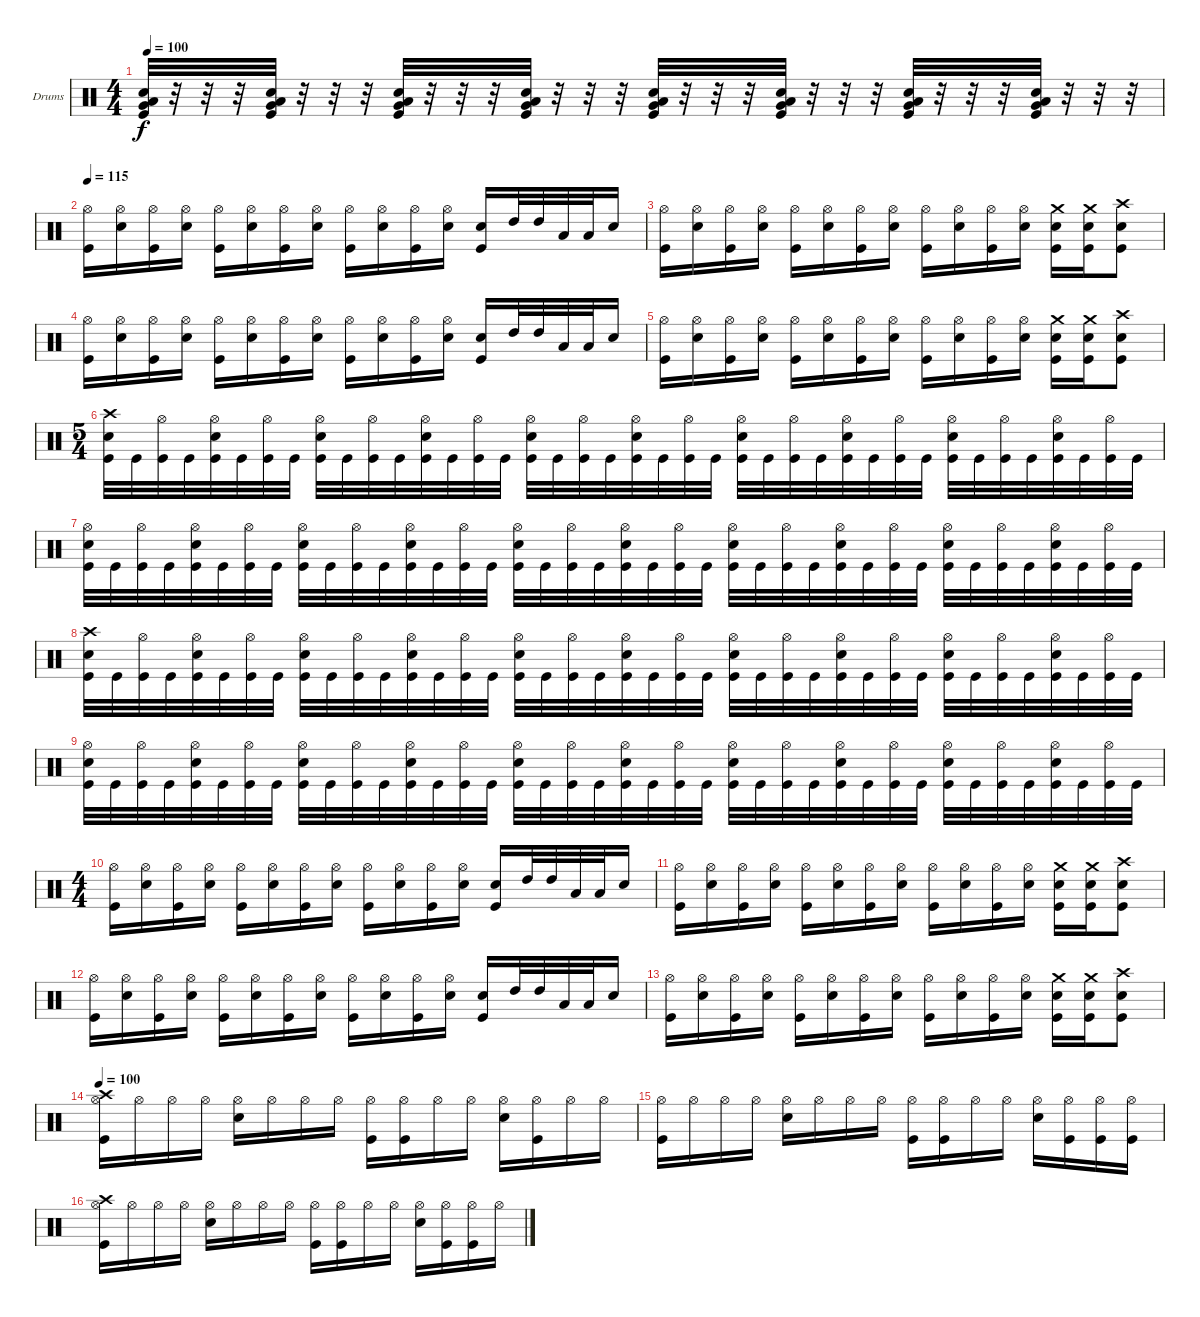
\bracketExtendMode groupsimilarinstruments
\firstSystemTrackNameOrientation horizontal
\otherSystemsTrackNameOrientation horizontal
\track ("Drumkit" "Drums") {instrument percussion}
\staff {score}
\articulation defaults
\ts (4 4)
\tempo 100
\clef neutral
\ks c
("Low Tom (hit)" "Very Low Tom (hit)" "Snare (hit) 2" "Kick (hit)").32{dy f} r.32 r.32 r.32 ("Low Tom (hit)" "Very Low Tom (hit)" "Snare (hit) 2" "Kick (hit)").32 r.32 r.32 r.32 ("Low Tom (hit)" "Very Low Tom (hit)" "Snare (hit) 2" "Kick (hit)").32 r.32 r.32 r.32 ("Low Tom (hit)" "Very Low Tom (hit)" "Snare (hit) 2" "Kick (hit)").32 r.32 r.32 r.32 ("Low Tom (hit)" "Very Low Tom (hit)" "Snare (hit) 2" "Kick (hit)").32 r.32 r.32 r.32 ("Low Tom (hit)" "Very Low Tom (hit)" "Snare (hit) 2" "Kick (hit)").32 r.32 r.32 r.32 ("Low Tom (hit)" "Very Low Tom (hit)" "Snare (hit) 2" "Kick (hit)").32 r.32 r.32 r.32 ("Low Tom (hit)" "Very Low Tom (hit)" "Snare (hit) 2" "Kick (hit)").32 r.32 r.32 r.32 |
\tempo 115
("Hi-Hat (open)" "Kick (hit)").16 ("Hi-Hat (open)" "Snare (hit) 2").16 ("Hi-Hat (open)" "Kick (hit)").16 ("Hi-Hat (open)" "Snare (hit) 2").16 ("Hi-Hat (open)" "Kick (hit)").16 ("Hi-Hat (open)" "Snare (hit) 2").16 ("Hi-Hat (open)" "Kick (hit)").16 ("Hi-Hat (open)" "Snare (hit) 2").16 ("Hi-Hat (open)" "Kick (hit)").16 ("Hi-Hat (open)" "Snare (hit) 2").16 ("Hi-Hat (open)" "Kick (hit)").16 ("Hi-Hat (open)" "Snare (hit) 2").16 ("Snare (hit) 2" "Kick (hit)").16 "High Tom (hit)".32 "High Tom (hit)".32 "Low Tom (hit)".32 "Low Tom (hit)".32 "Snare (hit) 2".16 |
("Hi-Hat (open)" "Kick (hit)").16 ("Hi-Hat (open)" "Snare (hit) 2").16 ("Hi-Hat (open)" "Kick (hit)").16 ("Hi-Hat (open)" "Snare (hit) 2").16 ("Hi-Hat (open)" "Kick (hit)").16 ("Hi-Hat (open)" "Snare (hit) 2").16 ("Hi-Hat (open)" "Kick (hit)").16 ("Hi-Hat (open)" "Snare (hit) 2").16 ("Hi-Hat (open)" "Kick (hit)").16 ("Hi-Hat (open)" "Snare (hit) 2").16 ("Hi-Hat (open)" "Kick (hit)").16 ("Hi-Hat (open)" "Snare (hit) 2").16 ("Crash medium (hit)" "Snare (hit) 2" "Kick (hit)").16 ("Crash medium (hit)" "Snare (hit) 2" "Kick (hit)").16 ("Crash high (hit)" "Snare (hit) 2" "Kick (hit)").8 |
("Hi-Hat (open)" "Kick (hit)").16 ("Hi-Hat (open)" "Snare (hit) 2").16 ("Hi-Hat (open)" "Kick (hit)").16 ("Hi-Hat (open)" "Snare (hit) 2").16 ("Hi-Hat (open)" "Kick (hit)").16 ("Hi-Hat (open)" "Snare (hit) 2").16 ("Hi-Hat (open)" "Kick (hit)").16 ("Hi-Hat (open)" "Snare (hit) 2").16 ("Hi-Hat (open)" "Kick (hit)").16 ("Hi-Hat (open)" "Snare (hit) 2").16 ("Hi-Hat (open)" "Kick (hit)").16 ("Hi-Hat (open)" "Snare (hit) 2").16 ("Snare (hit) 2" "Kick (hit)").16 "High Tom (hit)".32 "High Tom (hit)".32 "Low Tom (hit)".32 "Low Tom (hit)".32 "Snare (hit) 2".16 |
("Hi-Hat (open)" "Kick (hit)").16 ("Hi-Hat (open)" "Snare (hit) 2").16 ("Hi-Hat (open)" "Kick (hit)").16 ("Hi-Hat (open)" "Snare (hit) 2").16 ("Hi-Hat (open)" "Kick (hit)").16 ("Hi-Hat (open)" "Snare (hit) 2").16 ("Hi-Hat (open)" "Kick (hit)").16 ("Hi-Hat (open)" "Snare (hit) 2").16 ("Hi-Hat (open)" "Kick (hit)").16 ("Hi-Hat (open)" "Snare (hit) 2").16 ("Hi-Hat (open)" "Kick (hit)").16 ("Hi-Hat (open)" "Snare (hit) 2").16 ("Crash medium (hit)" "Snare (hit) 2" "Kick (hit)").16 ("Crash medium (hit)" "Snare (hit) 2" "Kick (hit)").16 ("Crash high (hit)" "Snare (hit) 2" "Kick (hit)").8 |
\ts (5 4)
("Snare (hit) 2" "Kick (hit)" "Crash high (hit)").32 "Kick (hit)".32 ("Hi-Hat (open)" "Kick (hit)").32 "Kick (hit)".32 ("Hi-Hat (open)" "Snare (hit) 2" "Kick (hit)").32 "Kick (hit)".32 ("Hi-Hat (open)" "Kick (hit)").32 "Kick (hit)".32 ("Hi-Hat (open)" "Snare (hit) 2" "Kick (hit)").32 "Kick (hit)".32 ("Hi-Hat (open)" "Kick (hit)").32 "Kick (hit)".32 ("Hi-Hat (open)" "Snare (hit) 2" "Kick (hit)").32 "Kick (hit)".32 ("Hi-Hat (open)" "Kick (hit)").32 "Kick (hit)".32 ("Hi-Hat (open)" "Snare (hit) 2" "Kick (hit)").32 "Kick (hit)".32 ("Hi-Hat (open)" "Kick (hit)").32 "Kick (hit)".32 ("Hi-Hat (open)" "Snare (hit) 2" "Kick (hit)").32 "Kick (hit)".32 ("Hi-Hat (open)" "Kick (hit)").32 "Kick (hit)".32 ("Hi-Hat (open)" "Snare (hit) 2" "Kick (hit)").32 "Kick (hit)".32 ("Hi-Hat (open)" "Kick (hit)").32 "Kick (hit)".32 ("Hi-Hat (open)" "Snare (hit) 2" "Kick (hit)").32 "Kick (hit)".32 ("Kick (hit)" "Hi-Hat (open)").32 "Kick (hit)".32 ("Hi-Hat (open)" "Snare (hit) 2" "Kick (hit)").32 "Kick (hit)".32 ("Hi-Hat (open)" "Kick (hit)").32 "Kick (hit)".32 ("Hi-Hat (open)" "Snare (hit) 2" "Kick (hit)").32 "Kick (hit)".32 ("Hi-Hat (open)" "Kick (hit)").32 "Kick (hit)".32 |
("Snare (hit) 2" "Kick (hit)" "Hi-Hat (open)").32 "Kick (hit)".32 ("Hi-Hat (open)" "Kick (hit)").32 "Kick (hit)".32 ("Hi-Hat (open)" "Snare (hit) 2" "Kick (hit)").32 "Kick (hit)".32 ("Hi-Hat (open)" "Kick (hit)").32 "Kick (hit)".32 ("Hi-Hat (open)" "Snare (hit) 2" "Kick (hit)").32 "Kick (hit)".32 ("Hi-Hat (open)" "Kick (hit)").32 "Kick (hit)".32 ("Hi-Hat (open)" "Snare (hit) 2" "Kick (hit)").32 "Kick (hit)".32 ("Hi-Hat (open)" "Kick (hit)").32 "Kick (hit)".32 ("Hi-Hat (open)" "Snare (hit) 2" "Kick (hit)").32 "Kick (hit)".32 ("Hi-Hat (open)" "Kick (hit)").32 "Kick (hit)".32 ("Hi-Hat (open)" "Snare (hit) 2" "Kick (hit)").32 "Kick (hit)".32 ("Hi-Hat (open)" "Kick (hit)").32 "Kick (hit)".32 ("Hi-Hat (open)" "Snare (hit) 2" "Kick (hit)").32 "Kick (hit)".32 ("Hi-Hat (open)" "Kick (hit)").32 "Kick (hit)".32 ("Hi-Hat (open)" "Snare (hit) 2" "Kick (hit)").32 "Kick (hit)".32 ("Kick (hit)" "Hi-Hat (open)").32 "Kick (hit)".32 ("Hi-Hat (open)" "Snare (hit) 2" "Kick (hit)").32 "Kick (hit)".32 ("Hi-Hat (open)" "Kick (hit)").32 "Kick (hit)".32 ("Hi-Hat (open)" "Snare (hit) 2" "Kick (hit)").32 "Kick (hit)".32 ("Hi-Hat (open)" "Kick (hit)").32 "Kick (hit)".32 |
("Snare (hit) 2" "Kick (hit)" "Crash high (hit)").32 "Kick (hit)".32 ("Hi-Hat (open)" "Kick (hit)").32 "Kick (hit)".32 ("Hi-Hat (open)" "Snare (hit) 2" "Kick (hit)").32 "Kick (hit)".32 ("Hi-Hat (open)" "Kick (hit)").32 "Kick (hit)".32 ("Hi-Hat (open)" "Snare (hit) 2" "Kick (hit)").32 "Kick (hit)".32 ("Hi-Hat (open)" "Kick (hit)").32 "Kick (hit)".32 ("Hi-Hat (open)" "Snare (hit) 2" "Kick (hit)").32 "Kick (hit)".32 ("Hi-Hat (open)" "Kick (hit)").32 "Kick (hit)".32 ("Hi-Hat (open)" "Snare (hit) 2" "Kick (hit)").32 "Kick (hit)".32 ("Hi-Hat (open)" "Kick (hit)").32 "Kick (hit)".32 ("Hi-Hat (open)" "Snare (hit) 2" "Kick (hit)").32 "Kick (hit)".32 ("Hi-Hat (open)" "Kick (hit)").32 "Kick (hit)".32 ("Hi-Hat (open)" "Snare (hit) 2" "Kick (hit)").32 "Kick (hit)".32 ("Hi-Hat (open)" "Kick (hit)").32 "Kick (hit)".32 ("Hi-Hat (open)" "Snare (hit) 2" "Kick (hit)").32 "Kick (hit)".32 ("Kick (hit)" "Hi-Hat (open)").32 "Kick (hit)".32 ("Hi-Hat (open)" "Snare (hit) 2" "Kick (hit)").32 "Kick (hit)".32 ("Hi-Hat (open)" "Kick (hit)").32 "Kick (hit)".32 ("Hi-Hat (open)" "Snare (hit) 2" "Kick (hit)").32 "Kick (hit)".32 ("Hi-Hat (open)" "Kick (hit)").32 "Kick (hit)".32 |
("Snare (hit) 2" "Kick (hit)" "Hi-Hat (open)").32 "Kick (hit)".32 ("Hi-Hat (open)" "Kick (hit)").32 "Kick (hit)".32 ("Hi-Hat (open)" "Snare (hit) 2" "Kick (hit)").32 "Kick (hit)".32 ("Hi-Hat (open)" "Kick (hit)").32 "Kick (hit)".32 ("Hi-Hat (open)" "Snare (hit) 2" "Kick (hit)").32 "Kick (hit)".32 ("Hi-Hat (open)" "Kick (hit)").32 "Kick (hit)".32 ("Hi-Hat (open)" "Snare (hit) 2" "Kick (hit)").32 "Kick (hit)".32 ("Hi-Hat (open)" "Kick (hit)").32 "Kick (hit)".32 ("Hi-Hat (open)" "Snare (hit) 2" "Kick (hit)").32 "Kick (hit)".32 ("Hi-Hat (open)" "Kick (hit)").32 "Kick (hit)".32 ("Hi-Hat (open)" "Snare (hit) 2" "Kick (hit)").32 "Kick (hit)".32 ("Hi-Hat (open)" "Kick (hit)").32 "Kick (hit)".32 ("Hi-Hat (open)" "Snare (hit) 2" "Kick (hit)").32 "Kick (hit)".32 ("Hi-Hat (open)" "Kick (hit)").32 "Kick (hit)".32 ("Hi-Hat (open)" "Snare (hit) 2" "Kick (hit)").32 "Kick (hit)".32 ("Kick (hit)" "Hi-Hat (open)").32 "Kick (hit)".32 ("Hi-Hat (open)" "Snare (hit) 2" "Kick (hit)").32 "Kick (hit)".32 ("Hi-Hat (open)" "Kick (hit)").32 "Kick (hit)".32 ("Hi-Hat (open)" "Snare (hit) 2" "Kick (hit)").32 "Kick (hit)".32 ("Hi-Hat (open)" "Kick (hit)").32 "Kick (hit)".32 |
\ts (4 4)
("Hi-Hat (open)" "Kick (hit)").16 ("Hi-Hat (open)" "Snare (hit) 2").16 ("Hi-Hat (open)" "Kick (hit)").16 ("Hi-Hat (open)" "Snare (hit) 2").16 ("Hi-Hat (open)" "Kick (hit)").16 ("Hi-Hat (open)" "Snare (hit) 2").16 ("Hi-Hat (open)" "Kick (hit)").16 ("Hi-Hat (open)" "Snare (hit) 2").16 ("Hi-Hat (open)" "Kick (hit)").16 ("Hi-Hat (open)" "Snare (hit) 2").16 ("Hi-Hat (open)" "Kick (hit)").16 ("Hi-Hat (open)" "Snare (hit) 2").16 ("Snare (hit) 2" "Kick (hit)").16 "High Tom (hit)".32 "High Tom (hit)".32 "Low Tom (hit)".32 "Low Tom (hit)".32 "Snare (hit) 2".16 |
("Hi-Hat (open)" "Kick (hit)").16 ("Hi-Hat (open)" "Snare (hit) 2").16 ("Hi-Hat (open)" "Kick (hit)").16 ("Hi-Hat (open)" "Snare (hit) 2").16 ("Hi-Hat (open)" "Kick (hit)").16 ("Hi-Hat (open)" "Snare (hit) 2").16 ("Hi-Hat (open)" "Kick (hit)").16 ("Hi-Hat (open)" "Snare (hit) 2").16 ("Hi-Hat (open)" "Kick (hit)").16 ("Hi-Hat (open)" "Snare (hit) 2").16 ("Hi-Hat (open)" "Kick (hit)").16 ("Hi-Hat (open)" "Snare (hit) 2").16 ("Crash medium (hit)" "Snare (hit) 2" "Kick (hit)").16 ("Crash medium (hit)" "Snare (hit) 2" "Kick (hit)").16 ("Crash high (hit)" "Snare (hit) 2" "Kick (hit)").8 |
("Hi-Hat (open)" "Kick (hit)").16 ("Hi-Hat (open)" "Snare (hit) 2").16 ("Hi-Hat (open)" "Kick (hit)").16 ("Hi-Hat (open)" "Snare (hit) 2").16 ("Hi-Hat (open)" "Kick (hit)").16 ("Hi-Hat (open)" "Snare (hit) 2").16 ("Hi-Hat (open)" "Kick (hit)").16 ("Hi-Hat (open)" "Snare (hit) 2").16 ("Hi-Hat (open)" "Kick (hit)").16 ("Hi-Hat (open)" "Snare (hit) 2").16 ("Hi-Hat (open)" "Kick (hit)").16 ("Hi-Hat (open)" "Snare (hit) 2").16 ("Snare (hit) 2" "Kick (hit)").16 "High Tom (hit)".32 "High Tom (hit)".32 "Low Tom (hit)".32 "Low Tom (hit)".32 "Snare (hit) 2".16 |
("Hi-Hat (open)" "Kick (hit)").16 ("Hi-Hat (open)" "Snare (hit) 2").16 ("Hi-Hat (open)" "Kick (hit)").16 ("Hi-Hat (open)" "Snare (hit) 2").16 ("Hi-Hat (open)" "Kick (hit)").16 ("Hi-Hat (open)" "Snare (hit) 2").16 ("Hi-Hat (open)" "Kick (hit)").16 ("Hi-Hat (open)" "Snare (hit) 2").16 ("Hi-Hat (open)" "Kick (hit)").16 ("Hi-Hat (open)" "Snare (hit) 2").16 ("Hi-Hat (open)" "Kick (hit)").16 ("Hi-Hat (open)" "Snare (hit) 2").16 ("Crash medium (hit)" "Snare (hit) 2" "Kick (hit)").16 ("Crash medium (hit)" "Snare (hit) 2" "Kick (hit)").16 ("Crash high (hit)" "Snare (hit) 2" "Kick (hit)").8 |
\tempo 100
("Crash high (hit)" "Hi-Hat (open)" "Kick (hit)").16 "Hi-Hat (open)".16 "Hi-Hat (open)".16 "Hi-Hat (open)".16 ("Hi-Hat (open)" "Snare (hit) 2").16 "Hi-Hat (open)".16 "Hi-Hat (open)".16 "Hi-Hat (open)".16 ("Hi-Hat (open)" "Kick (hit)").16 ("Hi-Hat (open)" "Kick (hit)").16 "Hi-Hat (open)".16 "Hi-Hat (open)".16 ("Hi-Hat (open)" "Snare (hit) 2").16 ("Hi-Hat (open)" "Kick (hit)").16 "Hi-Hat (open)".16 "Hi-Hat (open)".16 |
("Hi-Hat (open)" "Kick (hit)").16 "Hi-Hat (open)".16 "Hi-Hat (open)".16 "Hi-Hat (open)".16 ("Hi-Hat (open)" "Snare (hit) 2").16 "Hi-Hat (open)".16 "Hi-Hat (open)".16 "Hi-Hat (open)".16 ("Hi-Hat (open)" "Kick (hit)").16 ("Hi-Hat (open)" "Kick (hit)").16 "Hi-Hat (open)".16 "Hi-Hat (open)".16 ("Hi-Hat (open)" "Snare (hit) 2").16 ("Hi-Hat (open)" "Kick (hit)").16 ("Hi-Hat (open)" "Kick (hit)").16 ("Hi-Hat (open)" "Kick (hit)").16 |
("Crash high (hit)" "Hi-Hat (open)" "Kick (hit)").16 "Hi-Hat (open)".16 "Hi-Hat (open)".16 "Hi-Hat (open)".16 ("Hi-Hat (open)" "Snare (hit) 2").16 "Hi-Hat (open)".16 "Hi-Hat (open)".16 "Hi-Hat (open)".16 ("Hi-Hat (open)" "Kick (hit)").16 ("Hi-Hat (open)" "Kick (hit)").16 "Hi-Hat (open)".16 "Hi-Hat (open)".16 ("Hi-Hat (open)" "Snare (hit) 2").16 ("Hi-Hat (open)" "Kick (hit)").16 ("Hi-Hat (open)" "Kick (hit)").16 "Hi-Hat (open)".16
